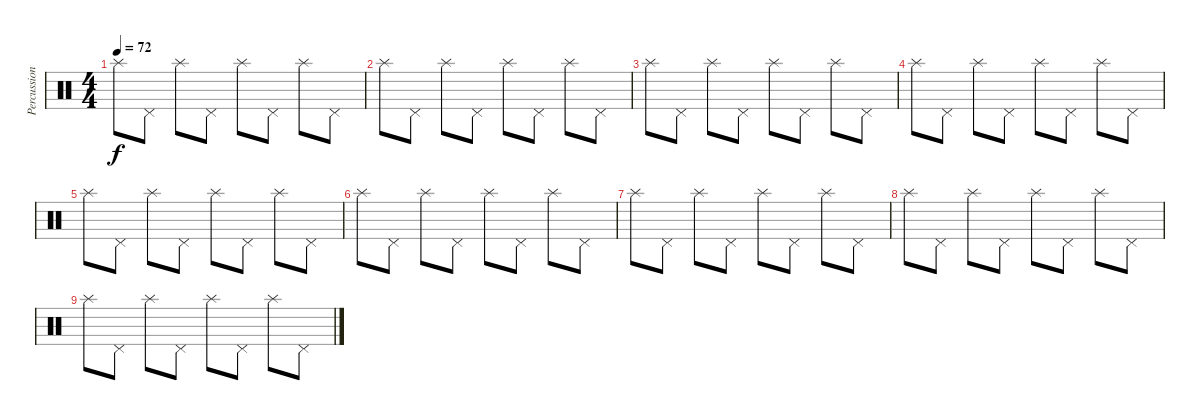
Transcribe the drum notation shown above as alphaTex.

\track ("Percussion" "Percussion") {instrument percussion}
\staff {score}
\articulation defaults
\ts (4 4)
\tempo 72
\clef neutral
\ks c "Splash (hit)".8{dy f} "Pedal Hi-Hat (hit)".8 "Splash (hit)".8 "Pedal Hi-Hat (hit)".8 "Splash (hit)".8 "Pedal Hi-Hat (hit)".8 "Splash (hit)".8 "Pedal Hi-Hat (hit)".8
|
"Splash (hit)".8 "Pedal Hi-Hat (hit)".8 "Splash (hit)".8 "Pedal Hi-Hat (hit)".8 "Splash (hit)".8 "Pedal Hi-Hat (hit)".8 "Splash (hit)".8 "Pedal Hi-Hat (hit)".8 |
"Splash (hit)".8 "Pedal Hi-Hat (hit)".8 "Splash (hit)".8 "Pedal Hi-Hat (hit)".8 "Splash (hit)".8 "Pedal Hi-Hat (hit)".8 "Splash (hit)".8 "Pedal Hi-Hat (hit)".8 |
"Splash (hit)".8 "Pedal Hi-Hat (hit)".8 "Splash (hit)".8 "Pedal Hi-Hat (hit)".8 "Splash (hit)".8 "Pedal Hi-Hat (hit)".8 "Splash (hit)".8 "Pedal Hi-Hat (hit)".8 |
"Splash (hit)".8 "Pedal Hi-Hat (hit)".8 "Splash (hit)".8 "Pedal Hi-Hat (hit)".8 "Splash (hit)".8 "Pedal Hi-Hat (hit)".8 "Splash (hit)".8 "Pedal Hi-Hat (hit)".8 |
"Splash (hit)".8 "Pedal Hi-Hat (hit)".8 "Splash (hit)".8 "Pedal Hi-Hat (hit)".8 "Splash (hit)".8 "Pedal Hi-Hat (hit)".8 "Splash (hit)".8 "Pedal Hi-Hat (hit)".8 |
"Splash (hit)".8 "Pedal Hi-Hat (hit)".8 "Splash (hit)".8 "Pedal Hi-Hat (hit)".8 "Splash (hit)".8 "Pedal Hi-Hat (hit)".8 "Splash (hit)".8 "Pedal Hi-Hat (hit)".8 |
"Splash (hit)".8 "Pedal Hi-Hat (hit)".8 "Splash (hit)".8 "Pedal Hi-Hat (hit)".8 "Splash (hit)".8 "Pedal Hi-Hat (hit)".8 "Splash (hit)".8 "Pedal Hi-Hat (hit)".8 |
"Splash (hit)".8 "Pedal Hi-Hat (hit)".8 "Splash (hit)".8 "Pedal Hi-Hat (hit)".8 "Splash (hit)".8 "Pedal Hi-Hat (hit)".8 "Splash (hit)".8 "Pedal Hi-Hat (hit)".8
